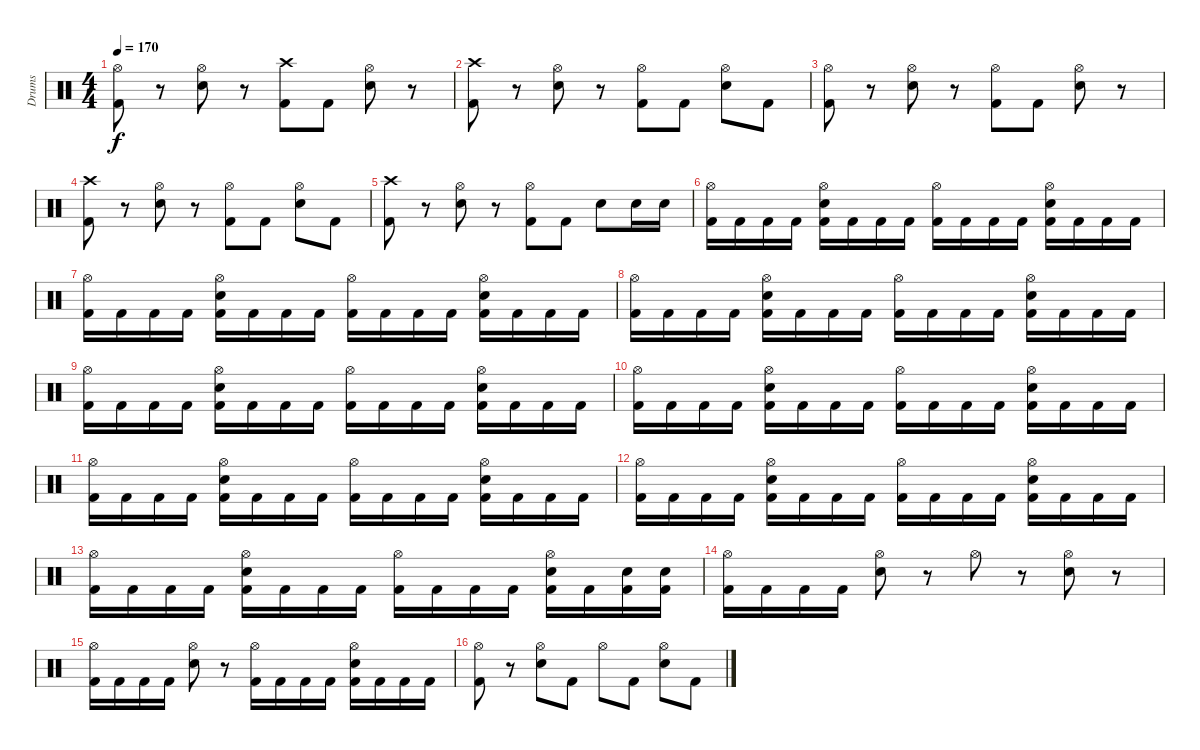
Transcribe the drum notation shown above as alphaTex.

\track ("Drums" "Drums") {instrument percussion}
\staff {score}
\articulation defaults
\ts (4 4)
\tempo 170
\clef neutral
\ks c
("Hi-Hat (open)" "Kick (hit) 2").8{dy f} r.8 ("Hi-Hat (open)" "Electric Snare (hit)").8 r.8 ("Crash high (hit)" "Kick (hit) 2").8 "Kick (hit) 2".8 ("Hi-Hat (open)" "Electric Snare (hit)").8 r.8 |
("Crash high (hit)" "Kick (hit) 2").8 r.8 ("Hi-Hat (open)" "Electric Snare (hit)").8 r.8 ("Hi-Hat (open)" "Kick (hit) 2").8 "Kick (hit) 2".8 ("Hi-Hat (open)" "Electric Snare (hit)").8 "Kick (hit) 2".8 |
("Hi-Hat (open)" "Kick (hit) 2").8 r.8 ("Hi-Hat (open)" "Electric Snare (hit)").8 r.8 ("Hi-Hat (open)" "Kick (hit) 2").8 "Kick (hit) 2".8 ("Hi-Hat (open)" "Electric Snare (hit)").8 r.8 |
("Crash high (hit)" "Kick (hit) 2").8 r.8 ("Hi-Hat (open)" "Electric Snare (hit)").8 r.8 ("Hi-Hat (open)" "Kick (hit) 2").8 "Kick (hit) 2".8 ("Hi-Hat (open)" "Electric Snare (hit)").8 "Kick (hit) 2".8 |
("Crash high (hit)" "Kick (hit) 2").8 r.8 ("Hi-Hat (open)" "Electric Snare (hit)").8 r.8 ("Hi-Hat (open)" "Kick (hit) 2").8 "Kick (hit) 2".8 "Electric Snare (hit)".8 "Electric Snare (hit)".16 "Electric Snare (hit)".16 |
("Hi-Hat (open)" "Kick (hit) 2").16 "Kick (hit) 2".16 "Kick (hit) 2".16 "Kick (hit) 2".16 ("Hi-Hat (open)" "Electric Snare (hit)" "Kick (hit) 2").16 "Kick (hit) 2".16 "Kick (hit) 2".16 "Kick (hit) 2".16 ("Hi-Hat (open)" "Kick (hit) 2").16 "Kick (hit) 2".16 "Kick (hit) 2".16 "Kick (hit) 2".16 ("Hi-Hat (open)" "Electric Snare (hit)" "Kick (hit) 2").16 "Kick (hit) 2".16 "Kick (hit) 2".16 "Kick (hit) 2".16 |
("Hi-Hat (open)" "Kick (hit) 2").16 "Kick (hit) 2".16 "Kick (hit) 2".16 "Kick (hit) 2".16 ("Hi-Hat (open)" "Electric Snare (hit)" "Kick (hit) 2").16 "Kick (hit) 2".16 "Kick (hit) 2".16 "Kick (hit) 2".16 ("Hi-Hat (open)" "Kick (hit) 2").16 "Kick (hit) 2".16 "Kick (hit) 2".16 "Kick (hit) 2".16 ("Hi-Hat (open)" "Electric Snare (hit)" "Kick (hit) 2").16 "Kick (hit) 2".16 "Kick (hit) 2".16 "Kick (hit) 2".16 |
("Hi-Hat (open)" "Kick (hit) 2").16 "Kick (hit) 2".16 "Kick (hit) 2".16 "Kick (hit) 2".16 ("Hi-Hat (open)" "Electric Snare (hit)" "Kick (hit) 2").16 "Kick (hit) 2".16 "Kick (hit) 2".16 "Kick (hit) 2".16 ("Hi-Hat (open)" "Kick (hit) 2").16 "Kick (hit) 2".16 "Kick (hit) 2".16 "Kick (hit) 2".16 ("Hi-Hat (open)" "Electric Snare (hit)" "Kick (hit) 2").16 "Kick (hit) 2".16 "Kick (hit) 2".16 "Kick (hit) 2".16 |
("Hi-Hat (open)" "Kick (hit) 2").16 "Kick (hit) 2".16 "Kick (hit) 2".16 "Kick (hit) 2".16 ("Hi-Hat (open)" "Electric Snare (hit)" "Kick (hit) 2").16 "Kick (hit) 2".16 "Kick (hit) 2".16 "Kick (hit) 2".16 ("Hi-Hat (open)" "Kick (hit) 2").16 "Kick (hit) 2".16 "Kick (hit) 2".16 "Kick (hit) 2".16 ("Hi-Hat (open)" "Electric Snare (hit)" "Kick (hit) 2").16 "Kick (hit) 2".16 "Kick (hit) 2".16 "Kick (hit) 2".16 |
("Hi-Hat (open)" "Kick (hit) 2").16 "Kick (hit) 2".16 "Kick (hit) 2".16 "Kick (hit) 2".16 ("Hi-Hat (open)" "Electric Snare (hit)" "Kick (hit) 2").16 "Kick (hit) 2".16 "Kick (hit) 2".16 "Kick (hit) 2".16 ("Hi-Hat (open)" "Kick (hit) 2").16 "Kick (hit) 2".16 "Kick (hit) 2".16 "Kick (hit) 2".16 ("Hi-Hat (open)" "Electric Snare (hit)" "Kick (hit) 2").16 "Kick (hit) 2".16 "Kick (hit) 2".16 "Kick (hit) 2".16 |
("Hi-Hat (open)" "Kick (hit) 2").16 "Kick (hit) 2".16 "Kick (hit) 2".16 "Kick (hit) 2".16 ("Hi-Hat (open)" "Electric Snare (hit)" "Kick (hit) 2").16 "Kick (hit) 2".16 "Kick (hit) 2".16 "Kick (hit) 2".16 ("Hi-Hat (open)" "Kick (hit) 2").16 "Kick (hit) 2".16 "Kick (hit) 2".16 "Kick (hit) 2".16 ("Hi-Hat (open)" "Electric Snare (hit)" "Kick (hit) 2").16 "Kick (hit) 2".16 "Kick (hit) 2".16 "Kick (hit) 2".16 |
("Hi-Hat (open)" "Kick (hit) 2").16 "Kick (hit) 2".16 "Kick (hit) 2".16 "Kick (hit) 2".16 ("Hi-Hat (open)" "Electric Snare (hit)" "Kick (hit) 2").16 "Kick (hit) 2".16 "Kick (hit) 2".16 "Kick (hit) 2".16 ("Hi-Hat (open)" "Kick (hit) 2").16 "Kick (hit) 2".16 "Kick (hit) 2".16 "Kick (hit) 2".16 ("Hi-Hat (open)" "Electric Snare (hit)" "Kick (hit) 2").16 "Kick (hit) 2".16 "Kick (hit) 2".16 "Kick (hit) 2".16 |
("Hi-Hat (open)" "Kick (hit) 2").16 "Kick (hit) 2".16 "Kick (hit) 2".16 "Kick (hit) 2".16 ("Hi-Hat (open)" "Electric Snare (hit)" "Kick (hit) 2").16 "Kick (hit) 2".16 "Kick (hit) 2".16 "Kick (hit) 2".16 ("Hi-Hat (open)" "Kick (hit) 2").16 "Kick (hit) 2".16 "Kick (hit) 2".16 "Kick (hit) 2".16 ("Hi-Hat (open)" "Electric Snare (hit)" "Kick (hit) 2").16 "Kick (hit) 2".16 ("Electric Snare (hit)" "Kick (hit) 2").16 ("Electric Snare (hit)" "Kick (hit) 2").16 |
("Hi-Hat (open)" "Kick (hit) 2").16 "Kick (hit) 2".16 "Kick (hit) 2".16 "Kick (hit) 2".16 ("Hi-Hat (open)" "Electric Snare (hit)").8 r.8 "Hi-Hat (open)".8 r.8 ("Hi-Hat (open)" "Electric Snare (hit)").8 r.8 |
("Hi-Hat (open)" "Kick (hit) 2").16 "Kick (hit) 2".16 "Kick (hit) 2".16 "Kick (hit) 2".16 ("Hi-Hat (open)" "Electric Snare (hit)").8 r.8 ("Hi-Hat (open)" "Kick (hit) 2").16 "Kick (hit) 2".16 "Kick (hit) 2".16 "Kick (hit) 2".16 ("Hi-Hat (open)" "Electric Snare (hit)" "Kick (hit) 2").16 "Kick (hit) 2".16 "Kick (hit) 2".16 "Kick (hit) 2".16 |
("Hi-Hat (open)" "Kick (hit) 2").8 r.8 ("Hi-Hat (open)" "Electric Snare (hit)").8 "Kick (hit) 2".8 "Hi-Hat (open)".8 "Kick (hit) 2".8 ("Hi-Hat (open)" "Electric Snare (hit)").8 "Kick (hit) 2".8
